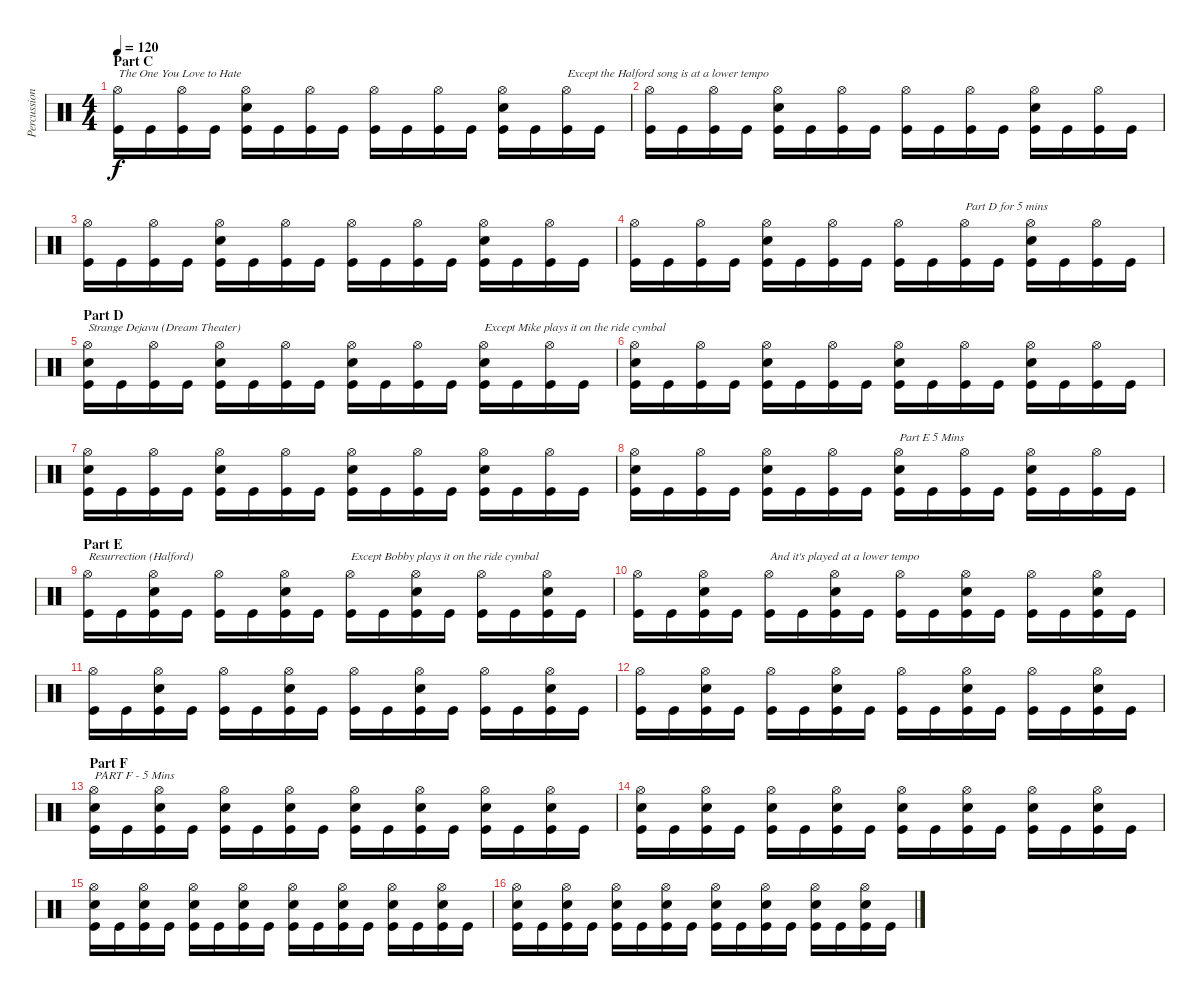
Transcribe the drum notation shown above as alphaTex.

\track ("Percussion" "Percussion") {instrument percussion}
\staff {score}
\articulation defaults
\ts (4 4)
\section ("" "Part C")
\tempo 120
\clef neutral
\ks c
("Hi-Hat (open)" "Kick (hit)").16{txt "The One You Love to Hate" dy f} "Kick (hit)".16 ("Hi-Hat (open)" "Kick (hit)").16 "Kick (hit)".16 ("Hi-Hat (open)" "Electric Snare (hit)" "Kick (hit)").16 "Kick (hit)".16 ("Hi-Hat (open)" "Kick (hit)").16 "Kick (hit)".16 ("Hi-Hat (open)" "Kick (hit)").16 "Kick (hit)".16 ("Hi-Hat (open)" "Kick (hit)").16 "Kick (hit)".16 ("Hi-Hat (open)" "Electric Snare (hit)" "Kick (hit)").16 "Kick (hit)".16 ("Hi-Hat (open)" "Kick (hit)").16{txt "Except the Halford song is at a lower tempo"} "Kick (hit)".16 |
("Hi-Hat (open)" "Kick (hit)").16 "Kick (hit)".16 ("Hi-Hat (open)" "Kick (hit)").16 "Kick (hit)".16 ("Hi-Hat (open)" "Electric Snare (hit)" "Kick (hit)").16 "Kick (hit)".16 ("Hi-Hat (open)" "Kick (hit)").16 "Kick (hit)".16 ("Hi-Hat (open)" "Kick (hit)").16 "Kick (hit)".16 ("Hi-Hat (open)" "Kick (hit)").16 "Kick (hit)".16 ("Hi-Hat (open)" "Electric Snare (hit)" "Kick (hit)").16 "Kick (hit)".16 ("Hi-Hat (open)" "Kick (hit)").16 "Kick (hit)".16 |
("Hi-Hat (open)" "Kick (hit)").16 "Kick (hit)".16 ("Hi-Hat (open)" "Kick (hit)").16 "Kick (hit)".16 ("Hi-Hat (open)" "Electric Snare (hit)" "Kick (hit)").16 "Kick (hit)".16 ("Hi-Hat (open)" "Kick (hit)").16 "Kick (hit)".16 ("Hi-Hat (open)" "Kick (hit)").16 "Kick (hit)".16 ("Hi-Hat (open)" "Kick (hit)").16 "Kick (hit)".16 ("Hi-Hat (open)" "Electric Snare (hit)" "Kick (hit)").16 "Kick (hit)".16 ("Hi-Hat (open)" "Kick (hit)").16 "Kick (hit)".16 |
("Hi-Hat (open)" "Kick (hit)").16 "Kick (hit)".16 ("Hi-Hat (open)" "Kick (hit)").16 "Kick (hit)".16 ("Hi-Hat (open)" "Electric Snare (hit)" "Kick (hit)").16 "Kick (hit)".16 ("Hi-Hat (open)" "Kick (hit)").16 "Kick (hit)".16 ("Hi-Hat (open)" "Kick (hit)").16 "Kick (hit)".16 ("Hi-Hat (open)" "Kick (hit)").16{txt "Part D for 5 mins"} "Kick (hit)".16 ("Hi-Hat (open)" "Electric Snare (hit)" "Kick (hit)").16 "Kick (hit)".16 ("Hi-Hat (open)" "Kick (hit)").16 "Kick (hit)".16 |
\section ("" "Part D")
("Hi-Hat (open)" "Electric Snare (hit)" "Kick (hit)").16{txt "Strange Dejavu (Dream Theater) "} "Kick (hit)".16 ("Hi-Hat (open)" "Kick (hit)").16 "Kick (hit)".16 ("Hi-Hat (open)" "Electric Snare (hit)" "Kick (hit)").16 "Kick (hit)".16 ("Hi-Hat (open)" "Kick (hit)").16 "Kick (hit)".16 ("Hi-Hat (open)" "Electric Snare (hit)" "Kick (hit)").16 "Kick (hit)".16 ("Hi-Hat (open)" "Kick (hit)").16 "Kick (hit)".16 ("Hi-Hat (open)" "Electric Snare (hit)" "Kick (hit)").16{txt "Except Mike plays it on the ride cymbal"} "Kick (hit)".16 ("Hi-Hat (open)" "Kick (hit)").16 "Kick (hit)".16 |
("Hi-Hat (open)" "Electric Snare (hit)" "Kick (hit)").16 "Kick (hit)".16 ("Hi-Hat (open)" "Kick (hit)").16 "Kick (hit)".16 ("Hi-Hat (open)" "Electric Snare (hit)" "Kick (hit)").16 "Kick (hit)".16 ("Hi-Hat (open)" "Kick (hit)").16 "Kick (hit)".16 ("Hi-Hat (open)" "Electric Snare (hit)" "Kick (hit)").16 "Kick (hit)".16 ("Hi-Hat (open)" "Kick (hit)").16 "Kick (hit)".16 ("Hi-Hat (open)" "Electric Snare (hit)" "Kick (hit)").16 "Kick (hit)".16 ("Hi-Hat (open)" "Kick (hit)").16 "Kick (hit)".16 |
("Hi-Hat (open)" "Electric Snare (hit)" "Kick (hit)").16 "Kick (hit)".16 ("Hi-Hat (open)" "Kick (hit)").16 "Kick (hit)".16 ("Hi-Hat (open)" "Electric Snare (hit)" "Kick (hit)").16 "Kick (hit)".16 ("Hi-Hat (open)" "Kick (hit)").16 "Kick (hit)".16 ("Hi-Hat (open)" "Electric Snare (hit)" "Kick (hit)").16 "Kick (hit)".16 ("Hi-Hat (open)" "Kick (hit)").16 "Kick (hit)".16 ("Hi-Hat (open)" "Electric Snare (hit)" "Kick (hit)").16 "Kick (hit)".16 ("Hi-Hat (open)" "Kick (hit)").16 "Kick (hit)".16 |
("Hi-Hat (open)" "Electric Snare (hit)" "Kick (hit)").16 "Kick (hit)".16 ("Hi-Hat (open)" "Kick (hit)").16 "Kick (hit)".16 ("Hi-Hat (open)" "Electric Snare (hit)" "Kick (hit)").16 "Kick (hit)".16 ("Hi-Hat (open)" "Kick (hit)").16 "Kick (hit)".16 ("Hi-Hat (open)" "Electric Snare (hit)" "Kick (hit)").16{txt "Part E 5 Mins"} "Kick (hit)".16 ("Hi-Hat (open)" "Kick (hit)").16 "Kick (hit)".16 ("Hi-Hat (open)" "Electric Snare (hit)" "Kick (hit)").16 "Kick (hit)".16 ("Hi-Hat (open)" "Kick (hit)").16 "Kick (hit)".16 |
\section ("" "Part E ")
("Hi-Hat (open)" "Kick (hit)").16{txt "Resurrection (Halford) "} "Kick (hit)".16 ("Hi-Hat (open)" "Electric Snare (hit)" "Kick (hit)").16 "Kick (hit)".16 ("Hi-Hat (open)" "Kick (hit)").16 "Kick (hit)".16 ("Hi-Hat (open)" "Electric Snare (hit)" "Kick (hit)").16 "Kick (hit)".16 ("Hi-Hat (open)" "Kick (hit)").16{txt "Except Bobby plays it on the ride cymbal"} "Kick (hit)".16 ("Hi-Hat (open)" "Electric Snare (hit)" "Kick (hit)").16 "Kick (hit)".16 ("Hi-Hat (open)" "Kick (hit)").16 "Kick (hit)".16 ("Hi-Hat (open)" "Electric Snare (hit)" "Kick (hit)").16 "Kick (hit)".16 |
("Hi-Hat (open)" "Kick (hit)").16 "Kick (hit)".16 ("Hi-Hat (open)" "Electric Snare (hit)" "Kick (hit)").16 "Kick (hit)".16 ("Hi-Hat (open)" "Kick (hit)").16{txt "And it's played at a lower tempo"} "Kick (hit)".16 ("Hi-Hat (open)" "Electric Snare (hit)" "Kick (hit)").16 "Kick (hit)".16 ("Hi-Hat (open)" "Kick (hit)").16 "Kick (hit)".16 ("Hi-Hat (open)" "Electric Snare (hit)" "Kick (hit)").16 "Kick (hit)".16 ("Hi-Hat (open)" "Kick (hit)").16 "Kick (hit)".16 ("Hi-Hat (open)" "Electric Snare (hit)" "Kick (hit)").16 "Kick (hit)".16 |
("Hi-Hat (open)" "Kick (hit)").16 "Kick (hit)".16 ("Hi-Hat (open)" "Electric Snare (hit)" "Kick (hit)").16 "Kick (hit)".16 ("Hi-Hat (open)" "Kick (hit)").16 "Kick (hit)".16 ("Hi-Hat (open)" "Electric Snare (hit)" "Kick (hit)").16 "Kick (hit)".16 ("Hi-Hat (open)" "Kick (hit)").16 "Kick (hit)".16 ("Hi-Hat (open)" "Electric Snare (hit)" "Kick (hit)").16 "Kick (hit)".16 ("Hi-Hat (open)" "Kick (hit)").16 "Kick (hit)".16 ("Hi-Hat (open)" "Electric Snare (hit)" "Kick (hit)").16 "Kick (hit)".16 |
("Hi-Hat (open)" "Kick (hit)").16 "Kick (hit)".16 ("Hi-Hat (open)" "Electric Snare (hit)" "Kick (hit)").16 "Kick (hit)".16 ("Hi-Hat (open)" "Kick (hit)").16 "Kick (hit)".16 ("Hi-Hat (open)" "Electric Snare (hit)" "Kick (hit)").16 "Kick (hit)".16 ("Hi-Hat (open)" "Kick (hit)").16 "Kick (hit)".16 ("Hi-Hat (open)" "Electric Snare (hit)" "Kick (hit)").16 "Kick (hit)".16 ("Hi-Hat (open)" "Kick (hit)").16 "Kick (hit)".16 ("Hi-Hat (open)" "Electric Snare (hit)" "Kick (hit)").16 "Kick (hit)".16 |
\section ("" "Part F")
("Hi-Hat (open)" "Electric Snare (hit)" "Kick (hit)").16{txt "PART F - 5 Mins"} "Kick (hit)".16 ("Hi-Hat (open)" "Electric Snare (hit)" "Kick (hit)").16 "Kick (hit)".16 ("Hi-Hat (open)" "Electric Snare (hit)" "Kick (hit)").16 "Kick (hit)".16 ("Hi-Hat (open)" "Electric Snare (hit)" "Kick (hit)").16 "Kick (hit)".16 ("Hi-Hat (open)" "Electric Snare (hit)" "Kick (hit)").16 "Kick (hit)".16 ("Hi-Hat (open)" "Electric Snare (hit)" "Kick (hit)").16 "Kick (hit)".16 ("Hi-Hat (open)" "Electric Snare (hit)" "Kick (hit)").16 "Kick (hit)".16 ("Hi-Hat (open)" "Electric Snare (hit)" "Kick (hit)").16 "Kick (hit)".16 |
("Hi-Hat (open)" "Electric Snare (hit)" "Kick (hit)").16 "Kick (hit)".16 ("Hi-Hat (open)" "Electric Snare (hit)" "Kick (hit)").16 "Kick (hit)".16 ("Hi-Hat (open)" "Electric Snare (hit)" "Kick (hit)").16 "Kick (hit)".16 ("Hi-Hat (open)" "Electric Snare (hit)" "Kick (hit)").16 "Kick (hit)".16 ("Hi-Hat (open)" "Electric Snare (hit)" "Kick (hit)").16 "Kick (hit)".16 ("Hi-Hat (open)" "Electric Snare (hit)" "Kick (hit)").16 "Kick (hit)".16 ("Hi-Hat (open)" "Electric Snare (hit)" "Kick (hit)").16 "Kick (hit)".16 ("Hi-Hat (open)" "Electric Snare (hit)" "Kick (hit)").16 "Kick (hit)".16 |
("Hi-Hat (open)" "Electric Snare (hit)" "Kick (hit)").16 "Kick (hit)".16 ("Hi-Hat (open)" "Electric Snare (hit)" "Kick (hit)").16 "Kick (hit)".16 ("Hi-Hat (open)" "Electric Snare (hit)" "Kick (hit)").16 "Kick (hit)".16 ("Hi-Hat (open)" "Electric Snare (hit)" "Kick (hit)").16 "Kick (hit)".16 ("Hi-Hat (open)" "Electric Snare (hit)" "Kick (hit)").16 "Kick (hit)".16 ("Hi-Hat (open)" "Electric Snare (hit)" "Kick (hit)").16 "Kick (hit)".16 ("Hi-Hat (open)" "Electric Snare (hit)" "Kick (hit)").16 "Kick (hit)".16 ("Hi-Hat (open)" "Electric Snare (hit)" "Kick (hit)").16 "Kick (hit)".16 |
("Hi-Hat (open)" "Electric Snare (hit)" "Kick (hit)").16 "Kick (hit)".16 ("Hi-Hat (open)" "Electric Snare (hit)" "Kick (hit)").16 "Kick (hit)".16 ("Hi-Hat (open)" "Electric Snare (hit)" "Kick (hit)").16 "Kick (hit)".16 ("Hi-Hat (open)" "Electric Snare (hit)" "Kick (hit)").16 "Kick (hit)".16 ("Hi-Hat (open)" "Electric Snare (hit)" "Kick (hit)").16 "Kick (hit)".16 ("Hi-Hat (open)" "Electric Snare (hit)" "Kick (hit)").16 "Kick (hit)".16 ("Hi-Hat (open)" "Electric Snare (hit)" "Kick (hit)").16 "Kick (hit)".16 ("Hi-Hat (open)" "Electric Snare (hit)" "Kick (hit)").16 "Kick (hit)".16
